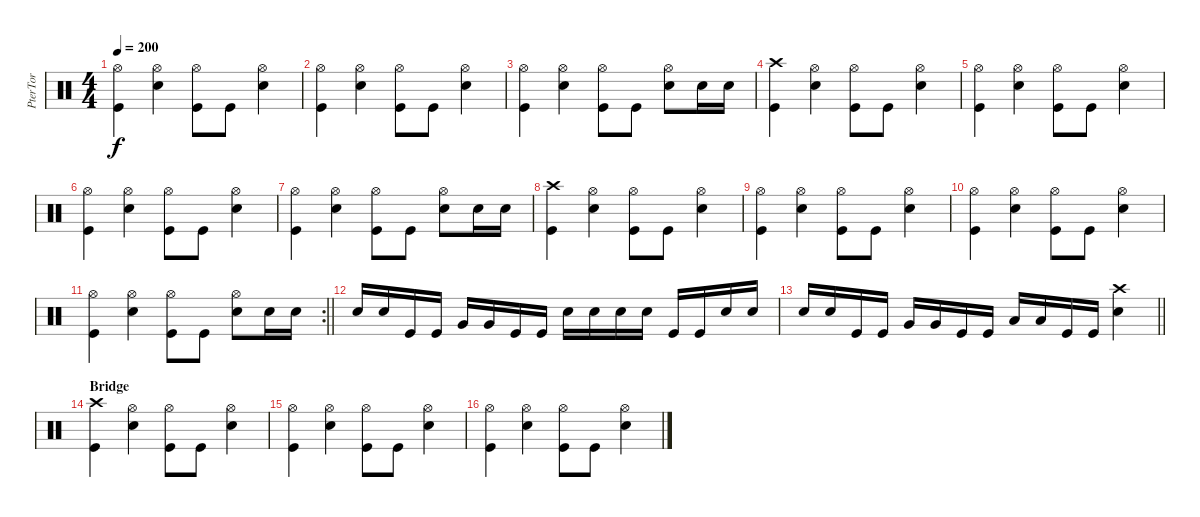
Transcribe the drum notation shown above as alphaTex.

\track ("PterTor" "PterTor") {instrument percussion}
\staff {score}
\articulation defaults
\ts (4 4)
\tempo 200
\clef neutral
\ks c
("Hi-Hat (open)" "Kick (hit)").4{dy f} ("Hi-Hat (open)" "Snare (hit) 2").4 ("Hi-Hat (open)" "Kick (hit)").8 "Kick (hit)".8 ("Hi-Hat (open)" "Snare (hit) 2").4 |
("Hi-Hat (open)" "Kick (hit)").4 ("Hi-Hat (open)" "Snare (hit) 2").4 ("Hi-Hat (open)" "Kick (hit)").8 "Kick (hit)".8 ("Hi-Hat (open)" "Snare (hit) 2").4 |
("Hi-Hat (open)" "Kick (hit)").4 ("Hi-Hat (open)" "Snare (hit) 2").4 ("Hi-Hat (open)" "Kick (hit)").8 "Kick (hit)".8 ("Hi-Hat (open)" "Snare (hit) 2").8 "Snare (hit) 2".16 "Snare (hit) 2".16 |
("Crash high (hit)" "Kick (hit)").4 ("Hi-Hat (open)" "Snare (hit) 2").4 ("Hi-Hat (open)" "Kick (hit)").8 "Kick (hit)".8 ("Hi-Hat (open)" "Snare (hit) 2").4 |
("Hi-Hat (open)" "Kick (hit)").4 ("Hi-Hat (open)" "Snare (hit) 2").4 ("Hi-Hat (open)" "Kick (hit)").8 "Kick (hit)".8 ("Hi-Hat (open)" "Snare (hit) 2").4 |
("Hi-Hat (open)" "Kick (hit)").4 ("Hi-Hat (open)" "Snare (hit) 2").4 ("Hi-Hat (open)" "Kick (hit)").8 "Kick (hit)".8 ("Hi-Hat (open)" "Snare (hit) 2").4 |
("Hi-Hat (open)" "Kick (hit)").4 ("Hi-Hat (open)" "Snare (hit) 2").4 ("Hi-Hat (open)" "Kick (hit)").8 "Kick (hit)".8 ("Hi-Hat (open)" "Snare (hit) 2").8 "Snare (hit) 2".16 "Snare (hit) 2".16 |
("Crash high (hit)" "Kick (hit)").4 ("Hi-Hat (open)" "Snare (hit) 2").4 ("Hi-Hat (open)" "Kick (hit)").8 "Kick (hit)".8 ("Hi-Hat (open)" "Snare (hit) 2").4 |
("Hi-Hat (open)" "Kick (hit)").4 ("Hi-Hat (open)" "Snare (hit) 2").4 ("Hi-Hat (open)" "Kick (hit)").8 "Kick (hit)".8 ("Hi-Hat (open)" "Snare (hit) 2").4 |
("Hi-Hat (open)" "Kick (hit)").4 ("Hi-Hat (open)" "Snare (hit) 2").4 ("Hi-Hat (open)" "Kick (hit)").8 "Kick (hit)".8 ("Hi-Hat (open)" "Snare (hit) 2").4 |
\rc 2
\barLineRight lightlight
("Hi-Hat (open)" "Kick (hit)").4 ("Hi-Hat (open)" "Snare (hit) 2").4 ("Hi-Hat (open)" "Kick (hit)").8 "Kick (hit)".8 ("Hi-Hat (open)" "Snare (hit) 2").8 "Snare (hit) 2".16 "Snare (hit) 2".16 |
"Electric Snare (hit)".16 "Electric Snare (hit)".16 "Kick (hit)".16 "Kick (hit)".16 "Very Low Tom (hit)".16 "Very Low Tom (hit)".16 "Kick (hit)".16 "Kick (hit)".16 "Electric Snare (hit)".16 "Electric Snare (hit)".16 "Electric Snare (hit)".16 "Electric Snare (hit)".16 "Kick (hit)".16 "Kick (hit)".16 "Electric Snare (hit)".16 "Electric Snare (hit)".16 |
\barLineRight lightlight "Electric Snare (hit)".16 "Electric Snare (hit)".16 "Kick (hit)".16 "Kick (hit)".16 "Very Low Tom (hit)".16 "Very Low Tom (hit)".16 "Kick (hit)".16 "Kick (hit)".16 "Low Floor Tom (hit)".16 "Low Floor Tom (hit)".16 "Kick (hit)".16 "Kick (hit)".16
("Crash high (hit)" "Electric Snare (hit)").4 |
\section ("" "Bridge")
("Crash high (hit)" "Kick (hit)").4 ("Hi-Hat (open)" "Snare (hit) 2").4 ("Hi-Hat (open)" "Kick (hit)").8 "Kick (hit)".8 ("Hi-Hat (open)" "Snare (hit) 2").4 |
("Hi-Hat (open)" "Kick (hit)").4 ("Hi-Hat (open)" "Snare (hit) 2").4 ("Hi-Hat (open)" "Kick (hit)").8 "Kick (hit)".8 ("Hi-Hat (open)" "Snare (hit) 2").4 |
("Hi-Hat (open)" "Kick (hit)").4 ("Hi-Hat (open)" "Snare (hit) 2").4 ("Hi-Hat (open)" "Kick (hit)").8 "Kick (hit)".8 ("Hi-Hat (open)" "Snare (hit) 2").4
